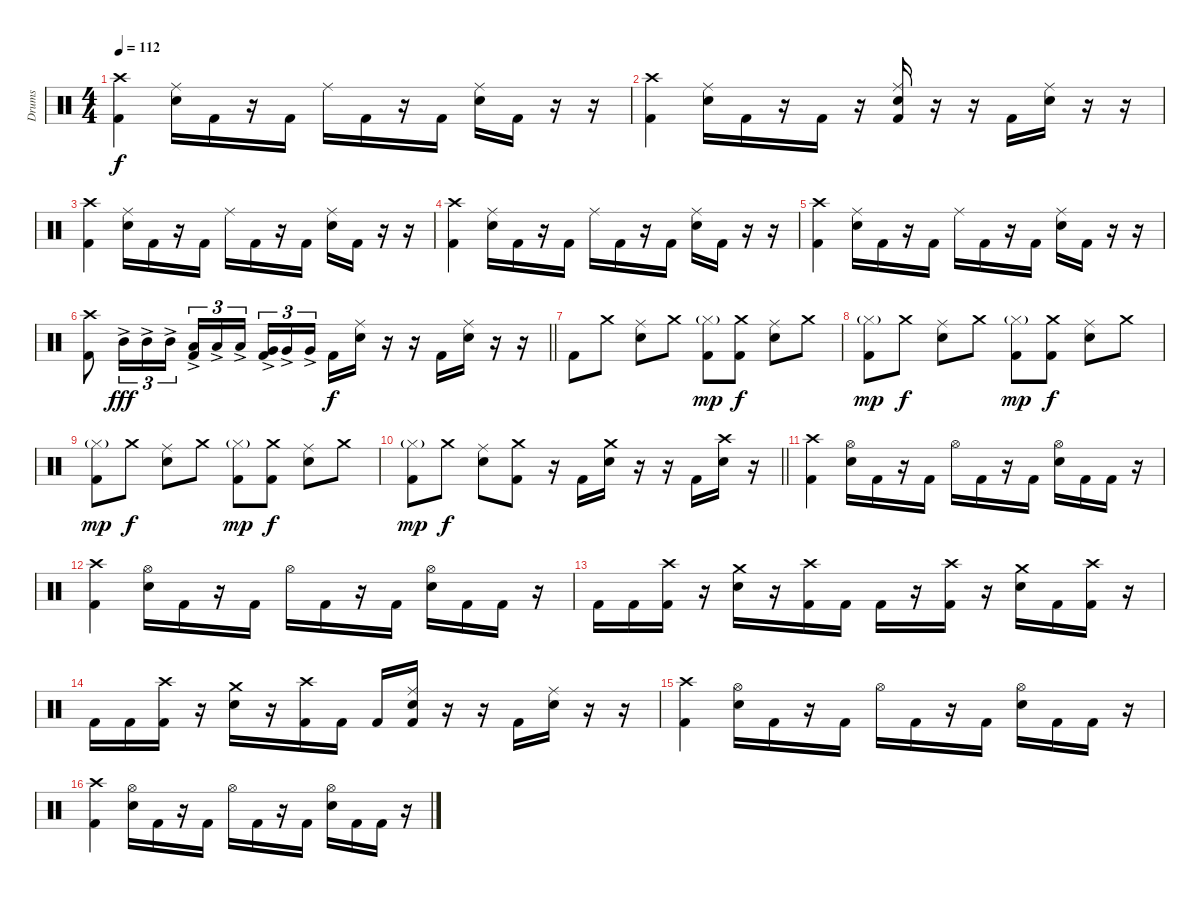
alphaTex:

\track ("Drums" "Drums") {instrument percussion}
\staff {score}
\articulation defaults
\ts (4 4)
\tempo 112
\clef neutral
\ks c
("Crash high (hit)" "Kick (hit) 2").4{dy f} ("Ride (middle)" "Electric Snare (hit)").16 "Kick (hit) 2".16 r.16 "Kick (hit) 2".16 "Ride (middle)".16 "Kick (hit) 2".16 r.16 "Kick (hit) 2".16 ("Ride (middle)" "Electric Snare (hit)").16 "Kick (hit) 2".16 r.16 r.16 |
("Crash high (hit)" "Kick (hit) 2").4 ("Ride (middle)" "Electric Snare (hit)").16 "Kick (hit) 2".16 r.16 "Kick (hit) 2".16 r.16 ("Ride (middle)" "Electric Snare (hit)" "Kick (hit) 2").16 r.16 r.16 "Kick (hit) 2".16 ("Ride (middle)" "Electric Snare (hit)").16 r.16 r.16 |
("Crash high (hit)" "Kick (hit) 2").4 ("Ride (middle)" "Electric Snare (hit)").16 "Kick (hit) 2".16 r.16 "Kick (hit) 2".16 "Ride (middle)".16 "Kick (hit) 2".16 r.16 "Kick (hit) 2".16 ("Ride (middle)" "Electric Snare (hit)").16 "Kick (hit) 2".16 r.16 r.16 |
("Crash high (hit)" "Kick (hit) 2").4 ("Ride (middle)" "Electric Snare (hit)").16 "Kick (hit) 2".16 r.16 "Kick (hit) 2".16 "Ride (middle)".16 "Kick (hit) 2".16 r.16 "Kick (hit) 2".16 ("Ride (middle)" "Electric Snare (hit)").16 "Kick (hit) 2".16 r.16 r.16 |
("Crash high (hit)" "Kick (hit) 2").4 ("Ride (middle)" "Electric Snare (hit)").16 "Kick (hit) 2".16 r.16 "Kick (hit) 2".16 "Ride (middle)".16 "Kick (hit) 2".16 r.16 "Kick (hit) 2".16 ("Ride (middle)" "Electric Snare (hit)").16 "Kick (hit) 2".16 r.16 r.16 |
\barLineRight lightlight
("Crash high (hit)" "Kick (hit) 2").8 "Mid Tom (hit)"{ac}.16{tu (3 2) dy fff} "Mid Tom (hit)"{ac}.16{tu (3 2)} "Mid Tom (hit)"{ac}.16{tu (3 2)} ("Low Tom (hit)"{ac} "Kick (hit) 2").16{tu (3 2)} "Low Tom (hit)"{ac}.16{tu (3 2)} "Low Tom (hit)"{ac}.16{tu (3 2) beam splitsecondary} ("Very Low Tom (hit)"{ac} "Kick (hit) 2").16{tu (3 2)} "Very Low Tom (hit)"{ac}.16{tu (3 2)} "Very Low Tom (hit)"{ac}.16{tu (3 2)} "Kick (hit) 2".16{dy f} ("Ride (middle)" "Electric Snare (hit)").16 r.16 r.16 "Kick (hit) 2".16 ("Ride (middle)" "Electric Snare (hit)").16 r.16 r.16 |
"Kick (hit) 2".8 "Crash medium (hit)".8 ("Ride (middle)" "Electric Snare (hit)").8 "Crash medium (hit)".8 ("Hi-Hat (closed)"{g} "Kick (hit) 2").8{dy mp} ("Crash medium (hit)" "Kick (hit) 2").8{dy f} ("Ride (middle)" "Electric Snare (hit)").8 "Crash medium (hit)".8 |
("Hi-Hat (closed)"{g} "Kick (hit) 2").8{dy mp} "Crash medium (hit)".8{dy f} ("Ride (middle)" "Electric Snare (hit)").8 "Crash medium (hit)".8 ("Hi-Hat (closed)"{g} "Kick (hit) 2").8{dy mp} ("Crash medium (hit)" "Kick (hit) 2").8{dy f} ("Ride (middle)" "Electric Snare (hit)").8 "Crash medium (hit)".8 |
("Hi-Hat (closed)"{g} "Kick (hit) 2").8{dy mp} "Crash medium (hit)".8{dy f} ("Ride (middle)" "Electric Snare (hit)").8 "Crash medium (hit)".8 ("Hi-Hat (closed)"{g} "Kick (hit) 2").8{dy mp} ("Crash medium (hit)" "Kick (hit) 2").8{dy f} ("Ride (middle)" "Electric Snare (hit)").8 "Crash medium (hit)".8 |
\barLineRight lightlight
("Hi-Hat (closed)"{g} "Kick (hit) 2").8{dy mp} "Crash medium (hit)".8{dy f} ("Ride (middle)" "Electric Snare (hit)").8 ("Crash medium (hit)" "Kick (hit) 2").8 r.16 "Kick (hit) 2".16 ("Crash medium (hit)" "Electric Snare (hit)").16 r.16 r.16 "Kick (hit) 2".16 ("Crash high (hit)" "Electric Snare (hit)").16 r.16 |
("Crash high (hit)" "Kick (hit) 2").4 ("Hi-Hat (open)" "Electric Snare (hit)").16 "Kick (hit) 2".16 r.16 "Kick (hit) 2".16 "Hi-Hat (open)".16 "Kick (hit) 2".16 r.16 "Kick (hit) 2".16 ("Hi-Hat (open)" "Electric Snare (hit)").16 "Kick (hit) 2".16 "Kick (hit) 2".16 r.16 |
("Crash high (hit)" "Kick (hit) 2").4 ("Hi-Hat (open)" "Electric Snare (hit)").16 "Kick (hit) 2".16 r.16 "Kick (hit) 2".16 "Hi-Hat (open)".16 "Kick (hit) 2".16 r.16 "Kick (hit) 2".16 ("Hi-Hat (open)" "Electric Snare (hit)").16 "Kick (hit) 2".16 "Kick (hit) 2".16 r.16 |
"Kick (hit) 2".16 "Kick (hit) 2".16 ("Crash high (hit)" "Kick (hit) 2").16 r.16 ("Crash medium (hit)" "Electric Snare (hit)").16 r.16 ("Crash high (hit)" "Kick (hit) 2").16 "Kick (hit) 2".16 "Kick (hit) 2".16 r.16 ("Crash high (hit)" "Kick (hit) 2").16 r.16 ("Crash medium (hit)" "Electric Snare (hit)").16 "Kick (hit) 2".16 ("Crash high (hit)" "Kick (hit) 2").16 r.16 |
"Kick (hit) 2".16 "Kick (hit) 2".16 ("Crash high (hit)" "Kick (hit) 2").16 r.16 ("Crash medium (hit)" "Electric Snare (hit)").16 r.16 ("Crash high (hit)" "Kick (hit) 2").16 "Kick (hit) 2".16 "Kick (hit) 2".16 ("Ride (middle)" "Electric Snare (hit)" "Kick (hit) 2").16 r.16 r.16 "Kick (hit) 2".16 ("Ride (middle)" "Electric Snare (hit)").16 r.16 r.16 |
("Crash high (hit)" "Kick (hit) 2").4 ("Hi-Hat (open)" "Electric Snare (hit)").16 "Kick (hit) 2".16 r.16 "Kick (hit) 2".16 "Hi-Hat (open)".16 "Kick (hit) 2".16 r.16 "Kick (hit) 2".16 ("Hi-Hat (open)" "Electric Snare (hit)").16 "Kick (hit) 2".16 "Kick (hit) 2".16 r.16 |
("Crash high (hit)" "Kick (hit) 2").4 ("Hi-Hat (open)" "Electric Snare (hit)").16 "Kick (hit) 2".16 r.16 "Kick (hit) 2".16 "Hi-Hat (open)".16 "Kick (hit) 2".16 r.16 "Kick (hit) 2".16 ("Hi-Hat (open)" "Electric Snare (hit)").16 "Kick (hit) 2".16 "Kick (hit) 2".16 r.16
